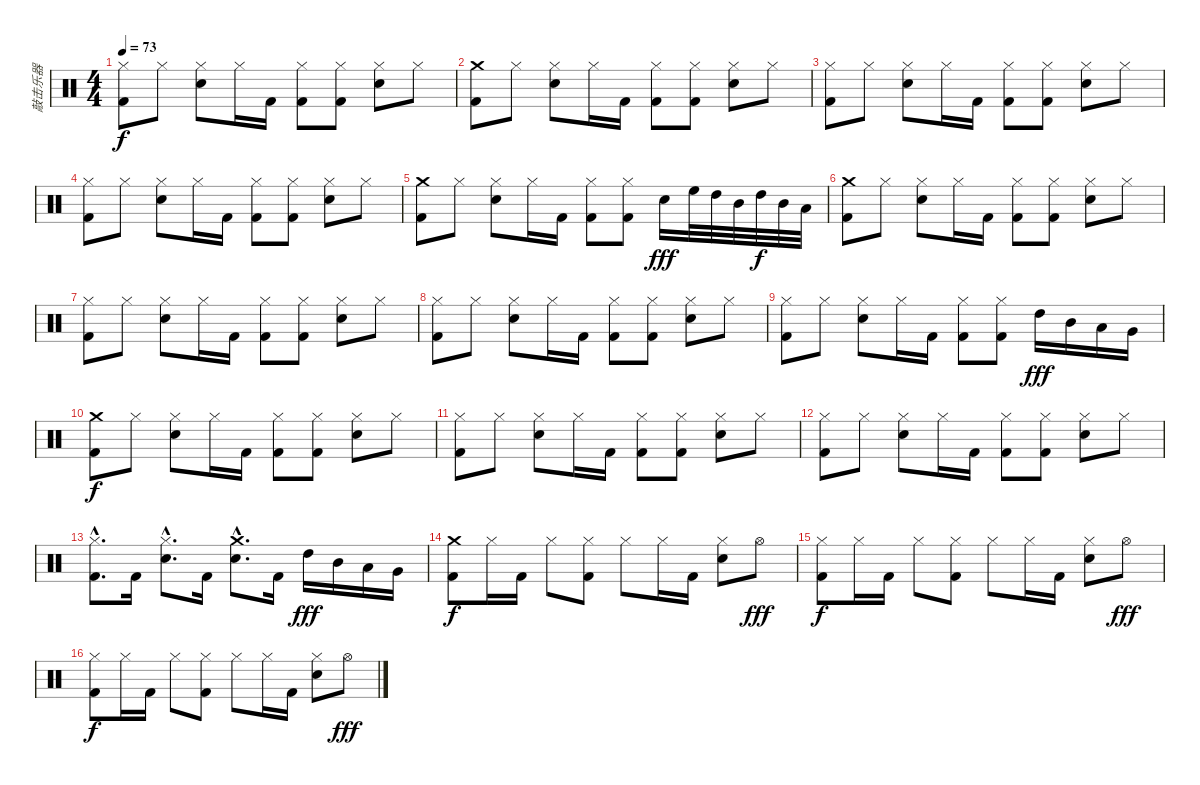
\track ("敲击乐器" "敲击乐器") {instrument percussion}
\staff {score}
\articulation defaults
\ts (4 4)
\tempo 73
\clef neutral
\ks c
("Hi-Hat (closed)" "Kick (hit) 2").8{dy f} "Hi-Hat (closed)".8 ("Hi-Hat (closed)" "Electric Snare (hit)").8 "Hi-Hat (closed)".16 "Kick (hit) 2".16 ("Hi-Hat (closed)" "Kick (hit) 2").8 ("Hi-Hat (closed)" "Kick (hit) 2").8 ("Hi-Hat (closed)" "Electric Snare (hit)").8 "Hi-Hat (closed)".8 |
("Crash medium (hit)" "Kick (hit) 2").8 "Hi-Hat (closed)".8 ("Hi-Hat (closed)" "Electric Snare (hit)").8 "Hi-Hat (closed)".16 "Kick (hit) 2".16 ("Hi-Hat (closed)" "Kick (hit) 2").8 ("Hi-Hat (closed)" "Kick (hit) 2").8 ("Hi-Hat (closed)" "Electric Snare (hit)").8 "Hi-Hat (closed)".8 |
("Hi-Hat (closed)" "Kick (hit) 2").8 "Hi-Hat (closed)".8 ("Hi-Hat (closed)" "Electric Snare (hit)").8 "Hi-Hat (closed)".16 "Kick (hit) 2".16 ("Hi-Hat (closed)" "Kick (hit) 2").8 ("Hi-Hat (closed)" "Kick (hit) 2").8 ("Hi-Hat (closed)" "Electric Snare (hit)").8 "Hi-Hat (closed)".8 |
("Hi-Hat (closed)" "Kick (hit) 2").8 "Hi-Hat (closed)".8 ("Hi-Hat (closed)" "Electric Snare (hit)").8 "Hi-Hat (closed)".16 "Kick (hit) 2".16 ("Hi-Hat (closed)" "Kick (hit) 2").8 ("Hi-Hat (closed)" "Kick (hit) 2").8 ("Hi-Hat (closed)" "Electric Snare (hit)").8 "Hi-Hat (closed)".8 |
("Crash medium (hit)" "Kick (hit) 2").8 "Hi-Hat (closed)".8 ("Hi-Hat (closed)" "Electric Snare (hit)").8 "Hi-Hat (closed)".16 "Kick (hit) 2".16 ("Hi-Hat (closed)" "Kick (hit) 2").8 ("Hi-Hat (closed)" "Kick (hit) 2").8 "Electric Snare (hit)".16{dy fff} "High Floor Tom (hit)".32 "High Tom (hit)".32 "Mid Tom (hit)".32 "High Tom (hit)".32{dy f} "Mid Tom (hit)".32 "Low Tom (hit)".32 |
("Crash medium (hit)" "Kick (hit) 2").8 "Hi-Hat (closed)".8 ("Hi-Hat (closed)" "Electric Snare (hit)").8 "Hi-Hat (closed)".16 "Kick (hit) 2".16 ("Hi-Hat (closed)" "Kick (hit) 2").8 ("Hi-Hat (closed)" "Kick (hit) 2").8 ("Hi-Hat (closed)" "Electric Snare (hit)").8 "Hi-Hat (closed)".8 |
("Hi-Hat (closed)" "Kick (hit) 2").8 "Hi-Hat (closed)".8 ("Hi-Hat (closed)" "Electric Snare (hit)").8 "Hi-Hat (closed)".16 "Kick (hit) 2".16 ("Hi-Hat (closed)" "Kick (hit) 2").8 ("Hi-Hat (closed)" "Kick (hit) 2").8 ("Hi-Hat (closed)" "Electric Snare (hit)").8 "Hi-Hat (closed)".8 |
("Hi-Hat (closed)" "Kick (hit) 2").8 "Hi-Hat (closed)".8 ("Hi-Hat (closed)" "Electric Snare (hit)").8 "Hi-Hat (closed)".16 "Kick (hit) 2".16 ("Hi-Hat (closed)" "Kick (hit) 2").8 ("Hi-Hat (closed)" "Kick (hit) 2").8 ("Hi-Hat (closed)" "Electric Snare (hit)").8 "Hi-Hat (closed)".8 |
("Hi-Hat (closed)" "Kick (hit) 2").8 "Hi-Hat (closed)".8 ("Hi-Hat (closed)" "Electric Snare (hit)").8 "Hi-Hat (closed)".16 "Kick (hit) 2".16 ("Hi-Hat (closed)" "Kick (hit) 2").8 ("Hi-Hat (closed)" "Kick (hit) 2").8 "High Tom (hit)".16{dy fff} "Mid Tom (hit)".16 "Low Tom (hit)".16 "Very Low Tom (hit)".16 |
("Crash medium (hit)" "Kick (hit) 2").8{dy f} "Hi-Hat (closed)".8 ("Hi-Hat (closed)" "Electric Snare (hit)").8 "Hi-Hat (closed)".16 "Kick (hit) 2".16 ("Hi-Hat (closed)" "Kick (hit) 2").8 ("Hi-Hat (closed)" "Kick (hit) 2").8 ("Hi-Hat (closed)" "Electric Snare (hit)").8 "Hi-Hat (closed)".8 |
("Hi-Hat (closed)" "Kick (hit) 2").8 "Hi-Hat (closed)".8 ("Hi-Hat (closed)" "Electric Snare (hit)").8 "Hi-Hat (closed)".16 "Kick (hit) 2".16 ("Hi-Hat (closed)" "Kick (hit) 2").8 ("Hi-Hat (closed)" "Kick (hit) 2").8 ("Hi-Hat (closed)" "Electric Snare (hit)").8 "Hi-Hat (closed)".8 |
("Hi-Hat (closed)" "Kick (hit) 2").8 "Hi-Hat (closed)".8 ("Hi-Hat (closed)" "Electric Snare (hit)").8 "Hi-Hat (closed)".16 "Kick (hit) 2".16 ("Hi-Hat (closed)" "Kick (hit) 2").8 ("Hi-Hat (closed)" "Kick (hit) 2").8 ("Hi-Hat (closed)" "Electric Snare (hit)").8 "Hi-Hat (closed)".8 |
("Hi-Hat (closed)"{hac} "Kick (hit) 2"{hac}).8{d} "Kick (hit) 2".16 ("Hi-Hat (closed)"{hac} "Electric Snare (hit)"{hac}).8{d} "Kick (hit) 2".16 ("Crash medium (hit)"{hac} "Electric Snare (hit)"{hac}).8{d} "Kick (hit) 2".16 "High Tom (hit)".16{dy fff} "Mid Tom (hit)".16 "Low Tom (hit)".16 "Very Low Tom (hit)".16 |
("Crash medium (hit)" "Kick (hit) 2").8{dy f} "Hi-Hat (closed)".16 "Kick (hit) 2".16 "Hi-Hat (closed)".8 ("Hi-Hat (closed)" "Kick (hit) 2").8 "Hi-Hat (closed)".8 "Hi-Hat (closed)".16 "Kick (hit) 2".16 ("Hi-Hat (closed)" "Electric Snare (hit)").8 "Hi-Hat (open)".8{dy fff} |
("Hi-Hat (closed)" "Kick (hit) 2").8{dy f} "Hi-Hat (closed)".16 "Kick (hit) 2".16 "Hi-Hat (closed)".8 ("Hi-Hat (closed)" "Kick (hit) 2").8 "Hi-Hat (closed)".8 "Hi-Hat (closed)".16 "Kick (hit) 2".16 ("Hi-Hat (closed)" "Electric Snare (hit)").8 "Hi-Hat (open)".8{dy fff} |
("Hi-Hat (closed)" "Kick (hit) 2").8{dy f} "Hi-Hat (closed)".16 "Kick (hit) 2".16 "Hi-Hat (closed)".8 ("Hi-Hat (closed)" "Kick (hit) 2").8 "Hi-Hat (closed)".8 "Hi-Hat (closed)".16 "Kick (hit) 2".16 ("Hi-Hat (closed)" "Electric Snare (hit)").8 "Hi-Hat (open)".8{dy fff}
